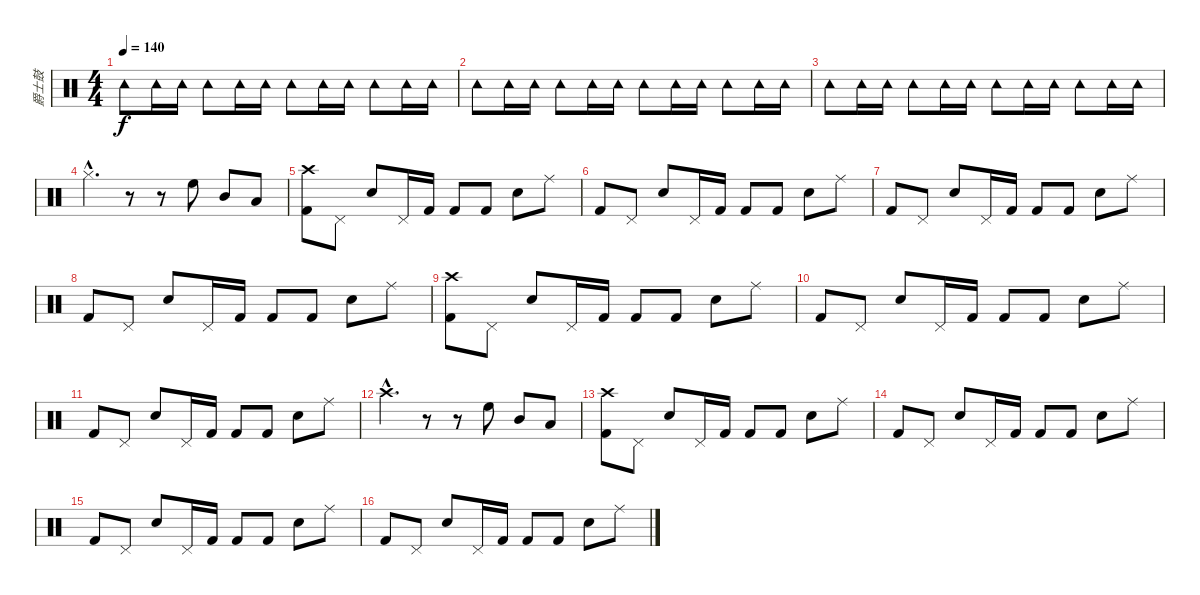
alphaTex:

\track ("爵士鼓" "爵士鼓") {instrument percussion}
\staff {score}
\articulation defaults
\ts (4 4)
\tempo 140
\clef neutral
\ks c "Tambourine (hit)".8{dy f} "Tambourine (hit)".16 "Tambourine (hit)".16 "Tambourine (hit)".8 "Tambourine (hit)".16 "Tambourine (hit)".16 "Tambourine (hit)".8 "Tambourine (hit)".16 "Tambourine (hit)".16 "Tambourine (hit)".8 "Tambourine (hit)".16 "Tambourine (hit)".16
|
"Tambourine (hit)".8 "Tambourine (hit)".16 "Tambourine (hit)".16 "Tambourine (hit)".8 "Tambourine (hit)".16 "Tambourine (hit)".16 "Tambourine (hit)".8 "Tambourine (hit)".16 "Tambourine (hit)".16 "Tambourine (hit)".8 "Tambourine (hit)".16 "Tambourine (hit)".16 |
"Tambourine (hit)".8 "Tambourine (hit)".16 "Tambourine (hit)".16 "Tambourine (hit)".8 "Tambourine (hit)".16 "Tambourine (hit)".16 "Tambourine (hit)".8 "Tambourine (hit)".16 "Tambourine (hit)".16 "Tambourine (hit)".8 "Tambourine (hit)".16 "Tambourine (hit)".16 |
"Hi-Hat (closed)"{hac}.4{d} r.8 r.8 "High Floor Tom (hit)".8 "Mid Tom (hit)".8 "Low Tom (hit)".8 |
("Crash high (hit)" "Kick (hit) 2").8 "Pedal Hi-Hat (hit)".8 "Snare (hit) 2".8 "Pedal Hi-Hat (hit)".16 "Kick (hit) 2".16 "Kick (hit) 2".8 "Kick (hit) 2".8 "Snare (hit) 2".8 "Ride (middle)".8 |
"Kick (hit) 2".8 "Pedal Hi-Hat (hit)".8 "Snare (hit) 2".8 "Pedal Hi-Hat (hit)".16 "Kick (hit) 2".16 "Kick (hit) 2".8 "Kick (hit) 2".8 "Snare (hit) 2".8 "Ride (middle)".8 |
"Kick (hit) 2".8 "Pedal Hi-Hat (hit)".8 "Snare (hit) 2".8 "Pedal Hi-Hat (hit)".16 "Kick (hit) 2".16 "Kick (hit) 2".8 "Kick (hit) 2".8 "Snare (hit) 2".8 "Ride (middle)".8 |
"Kick (hit) 2".8 "Pedal Hi-Hat (hit)".8 "Snare (hit) 2".8 "Pedal Hi-Hat (hit)".16 "Kick (hit) 2".16 "Kick (hit) 2".8 "Kick (hit) 2".8 "Snare (hit) 2".8 "Ride (middle)".8 |
("Crash high (hit)" "Kick (hit) 2").8 "Pedal Hi-Hat (hit)".8 "Snare (hit) 2".8 "Pedal Hi-Hat (hit)".16 "Kick (hit) 2".16 "Kick (hit) 2".8 "Kick (hit) 2".8 "Snare (hit) 2".8 "Ride (middle)".8 |
"Kick (hit) 2".8 "Pedal Hi-Hat (hit)".8 "Snare (hit) 2".8 "Pedal Hi-Hat (hit)".16 "Kick (hit) 2".16 "Kick (hit) 2".8 "Kick (hit) 2".8 "Snare (hit) 2".8 "Ride (middle)".8 |
"Kick (hit) 2".8 "Pedal Hi-Hat (hit)".8 "Snare (hit) 2".8 "Pedal Hi-Hat (hit)".16 "Kick (hit) 2".16 "Kick (hit) 2".8 "Kick (hit) 2".8 "Snare (hit) 2".8 "Ride (middle)".8 |
"Crash high (hit)"{hac}.4{d} r.8 r.8 "High Floor Tom (hit)".8 "Mid Tom (hit)".8 "Low Tom (hit)".8 |
("Crash high (hit)" "Kick (hit) 2").8 "Pedal Hi-Hat (hit)".8 "Snare (hit) 2".8 "Pedal Hi-Hat (hit)".16 "Kick (hit) 2".16 "Kick (hit) 2".8 "Kick (hit) 2".8 "Snare (hit) 2".8 "Ride (middle)".8 |
"Kick (hit) 2".8 "Pedal Hi-Hat (hit)".8 "Snare (hit) 2".8 "Pedal Hi-Hat (hit)".16 "Kick (hit) 2".16 "Kick (hit) 2".8 "Kick (hit) 2".8 "Snare (hit) 2".8 "Ride (middle)".8 |
"Kick (hit) 2".8 "Pedal Hi-Hat (hit)".8 "Snare (hit) 2".8 "Pedal Hi-Hat (hit)".16 "Kick (hit) 2".16 "Kick (hit) 2".8 "Kick (hit) 2".8 "Snare (hit) 2".8 "Ride (middle)".8 |
"Kick (hit) 2".8 "Pedal Hi-Hat (hit)".8 "Snare (hit) 2".8 "Pedal Hi-Hat (hit)".16 "Kick (hit) 2".16 "Kick (hit) 2".8 "Kick (hit) 2".8 "Snare (hit) 2".8 "Ride (middle)".8
